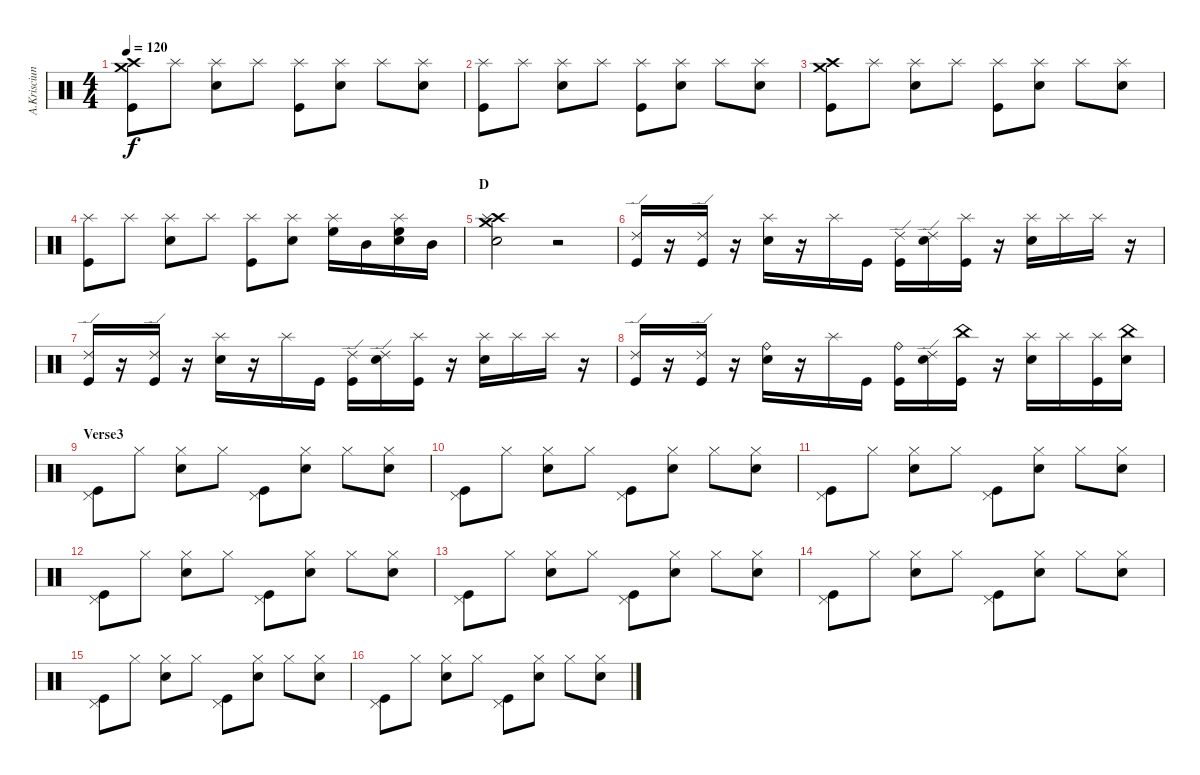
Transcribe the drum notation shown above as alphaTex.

\track ("A.Krisciunas" "A.Krisciun") {instrument percussion}
\staff {score}
\articulation defaults
\ts (4 4)
\tempo 120
\clef neutral
\ks c
("Crash medium (hit)" "Crash high (hit)" "Kick (hit)").8{dy f} "Splash (hit)".8 ("Splash (hit)" "Electric Snare (hit)").8 "Splash (hit)".8 ("Splash (hit)" "Kick (hit)").8 ("Splash (hit)" "Electric Snare (hit)").8 "Splash (hit)".8 ("Splash (hit)" "Electric Snare (hit)").8 |
("Splash (hit)" "Kick (hit)").8 "Splash (hit)".8 ("Splash (hit)" "Electric Snare (hit)").8 "Splash (hit)".8 ("Splash (hit)" "Kick (hit)").8 ("Splash (hit)" "Electric Snare (hit)").8 "Splash (hit)".8 ("Splash (hit)" "Electric Snare (hit)").8 |
("Crash medium (hit)" "Crash high (hit)" "Kick (hit)").8 "Splash (hit)".8 ("Splash (hit)" "Electric Snare (hit)").8 "Splash (hit)".8 ("Splash (hit)" "Kick (hit)").8 ("Splash (hit)" "Electric Snare (hit)").8 "Splash (hit)".8 ("Splash (hit)" "Electric Snare (hit)").8 |
("Splash (hit)" "Kick (hit)").8 "Splash (hit)".8 ("Splash (hit)" "Electric Snare (hit)").8 "Splash (hit)".8 ("Splash (hit)" "Kick (hit)").8 ("Splash (hit)" "Electric Snare (hit)").8 ("High Floor Tom (hit)" "Splash (hit)").16 "Mid Tom (hit)".16 ("High Floor Tom (hit)" "Splash (hit)" "Electric Snare (hit)").16 "Mid Tom (hit)".16 |
\section ("" "D")
("Crash medium (hit)" "Crash high (hit)" "Splash (hit)" "Electric Snare (hit)").2 r.2{volume 2} |
("Ride (edge) 2" "Kick (hit)").16{volume 9} r.16 ("Ride (edge) 2" "Kick (hit)").16 r.16 ("Splash (hit)" "Electric Snare (hit)").16 r.16 "Splash (hit)".16 "Kick (hit)".16 ("Ride (edge) 2" "Kick (hit)").16 ("Ride (edge) 2" "Electric Snare (hit)").16 ("Splash (hit)" "Kick (hit)").16 r.16 ("Splash (hit)" "Electric Snare (hit)").16 "Splash (hit)".16 "Splash (hit)".16 r.16 |
("Ride (edge) 2" "Kick (hit)").16 r.16 ("Ride (edge) 2" "Kick (hit)").16 r.16 ("Splash (hit)" "Electric Snare (hit)").16 r.16 "Splash (hit)".16 "Kick (hit)".16 ("Ride (edge) 2" "Kick (hit)").16 ("Ride (edge) 2" "Electric Snare (hit)").16 ("Splash (hit)" "Kick (hit)").16 r.16 ("Splash (hit)" "Electric Snare (hit)").16 "Splash (hit)".16 "Splash (hit)".16 r.16 |
("Ride (edge) 2" "Kick (hit)").16 r.16 ("Ride (edge) 2" "Kick (hit)").16 r.16 ("Ride (bell)" "Electric Snare (hit)").16 r.16 "Splash (hit)".16 "Kick (hit)".16 ("Ride (bell)" "Kick (hit)").16 ("Ride (edge) 2" "Electric Snare (hit)").16 ("China (hit)" "Kick (hit)").16 r.16 ("Splash (hit)" "Electric Snare (hit)").16 "Splash (hit)".16 ("Splash (hit)" "Kick (hit)").16 ("China (hit)" "Electric Snare (hit)").16 |
\section ("" "Verse3")
("Pedal Hi-Hat (hit)" "Kick (hit)").8 "Hi-Hat (closed)".8 ("Hi-Hat (closed)" "Electric Snare (hit)").8 "Hi-Hat (closed)".8 ("Pedal Hi-Hat (hit)" "Kick (hit)").8 ("Hi-Hat (closed)" "Electric Snare (hit)").8 "Hi-Hat (closed)".8 ("Hi-Hat (closed)" "Electric Snare (hit)").8 |
("Pedal Hi-Hat (hit)" "Kick (hit)").8 "Hi-Hat (closed)".8 ("Hi-Hat (closed)" "Electric Snare (hit)").8 "Hi-Hat (closed)".8 ("Pedal Hi-Hat (hit)" "Kick (hit)").8 ("Hi-Hat (closed)" "Electric Snare (hit)").8 "Hi-Hat (closed)".8 ("Hi-Hat (closed)" "Electric Snare (hit)").8 |
("Pedal Hi-Hat (hit)" "Kick (hit)").8 "Hi-Hat (closed)".8 ("Hi-Hat (closed)" "Electric Snare (hit)").8 "Hi-Hat (closed)".8 ("Pedal Hi-Hat (hit)" "Kick (hit)").8 ("Hi-Hat (closed)" "Electric Snare (hit)").8 "Hi-Hat (closed)".8 ("Hi-Hat (closed)" "Electric Snare (hit)").8 |
("Pedal Hi-Hat (hit)" "Kick (hit)").8 "Hi-Hat (closed)".8 ("Hi-Hat (closed)" "Electric Snare (hit)").8 "Hi-Hat (closed)".8 ("Pedal Hi-Hat (hit)" "Kick (hit)").8 ("Hi-Hat (closed)" "Electric Snare (hit)").8 "Hi-Hat (closed)".8 ("Hi-Hat (closed)" "Electric Snare (hit)").8 |
("Pedal Hi-Hat (hit)" "Kick (hit)").8 "Hi-Hat (closed)".8 ("Hi-Hat (closed)" "Electric Snare (hit)").8 "Hi-Hat (closed)".8 ("Pedal Hi-Hat (hit)" "Kick (hit)").8 ("Hi-Hat (closed)" "Electric Snare (hit)").8 "Hi-Hat (closed)".8 ("Hi-Hat (closed)" "Electric Snare (hit)").8 |
("Pedal Hi-Hat (hit)" "Kick (hit)").8 "Hi-Hat (closed)".8 ("Hi-Hat (closed)" "Electric Snare (hit)").8 "Hi-Hat (closed)".8 ("Pedal Hi-Hat (hit)" "Kick (hit)").8 ("Hi-Hat (closed)" "Electric Snare (hit)").8 "Hi-Hat (closed)".8 ("Hi-Hat (closed)" "Electric Snare (hit)").8 |
("Pedal Hi-Hat (hit)" "Kick (hit)").8 "Hi-Hat (closed)".8 ("Hi-Hat (closed)" "Electric Snare (hit)").8 "Hi-Hat (closed)".8 ("Pedal Hi-Hat (hit)" "Kick (hit)").8 ("Hi-Hat (closed)" "Electric Snare (hit)").8 "Hi-Hat (closed)".8 ("Hi-Hat (closed)" "Electric Snare (hit)").8 |
("Pedal Hi-Hat (hit)" "Kick (hit)").8 "Hi-Hat (closed)".8 ("Hi-Hat (closed)" "Electric Snare (hit)").8 "Hi-Hat (closed)".8 ("Pedal Hi-Hat (hit)" "Kick (hit)").8 ("Hi-Hat (closed)" "Electric Snare (hit)").8 "Hi-Hat (closed)".8 ("Hi-Hat (closed)" "Electric Snare (hit)").8
